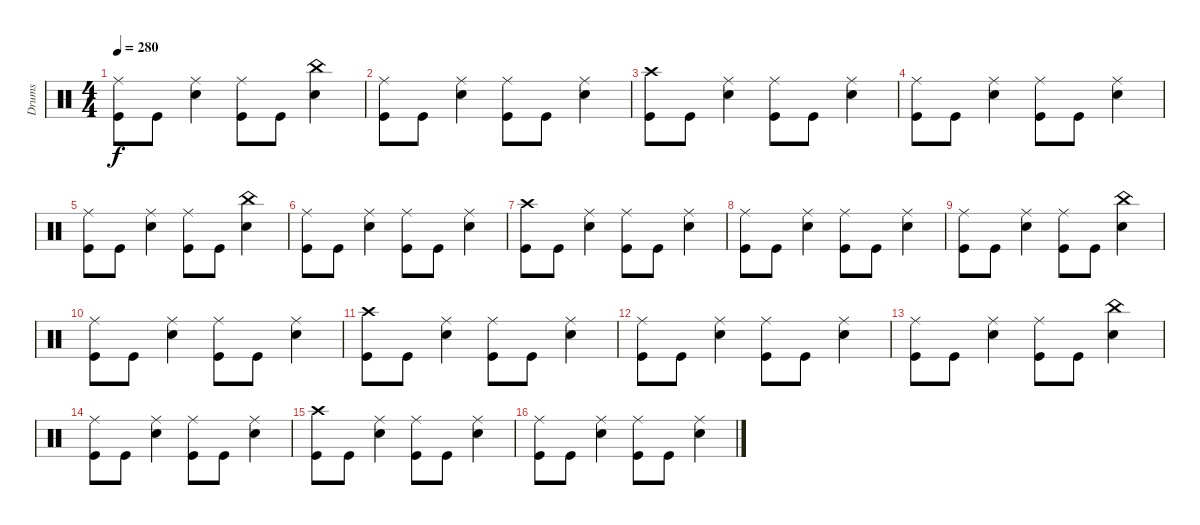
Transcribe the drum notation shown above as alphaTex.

\track ("Drums" "Drums") {instrument percussion}
\staff {score}
\articulation defaults
\ts (4 4)
\tempo 280
\clef neutral
\ks c
("Ride (middle)" "Kick (hit)").8{dy f} "Kick (hit)".8 ("Ride (middle)" "Electric Snare (hit)").4 ("Ride (middle)" "Kick (hit)").8 "Kick (hit)".8 ("China (hit)" "Electric Snare (hit)").4 |
("Ride (middle)" "Kick (hit)").8 "Kick (hit)".8 ("Ride (middle)" "Electric Snare (hit)").4 ("Ride (middle)" "Kick (hit)").8 "Kick (hit)".8 ("Ride (middle)" "Electric Snare (hit)").4 |
("Crash high (hit)" "Kick (hit)").8 "Kick (hit)".8 ("Ride (middle)" "Electric Snare (hit)").4 ("Ride (middle)" "Kick (hit)").8 "Kick (hit)".8 ("Ride (middle)" "Electric Snare (hit)").4 |
("Ride (middle)" "Kick (hit)").8 "Kick (hit)".8 ("Ride (middle)" "Electric Snare (hit)").4 ("Ride (middle)" "Kick (hit)").8 "Kick (hit)".8 ("Ride (middle)" "Electric Snare (hit)").4 |
("Ride (middle)" "Kick (hit)").8 "Kick (hit)".8 ("Ride (middle)" "Electric Snare (hit)").4 ("Ride (middle)" "Kick (hit)").8 "Kick (hit)".8 ("China (hit)" "Electric Snare (hit)").4 |
("Ride (middle)" "Kick (hit)").8 "Kick (hit)".8 ("Ride (middle)" "Electric Snare (hit)").4 ("Ride (middle)" "Kick (hit)").8 "Kick (hit)".8 ("Ride (middle)" "Electric Snare (hit)").4 |
("Crash high (hit)" "Kick (hit)").8 "Kick (hit)".8 ("Ride (middle)" "Electric Snare (hit)").4 ("Ride (middle)" "Kick (hit)").8 "Kick (hit)".8 ("Ride (middle)" "Electric Snare (hit)").4 |
("Ride (middle)" "Kick (hit)").8 "Kick (hit)".8 ("Ride (middle)" "Electric Snare (hit)").4 ("Ride (middle)" "Kick (hit)").8 "Kick (hit)".8 ("Ride (middle)" "Electric Snare (hit)").4 |
("Ride (middle)" "Kick (hit)").8 "Kick (hit)".8 ("Ride (middle)" "Electric Snare (hit)").4 ("Ride (middle)" "Kick (hit)").8 "Kick (hit)".8 ("China (hit)" "Electric Snare (hit)").4 |
("Ride (middle)" "Kick (hit)").8 "Kick (hit)".8 ("Ride (middle)" "Electric Snare (hit)").4 ("Ride (middle)" "Kick (hit)").8 "Kick (hit)".8 ("Ride (middle)" "Electric Snare (hit)").4 |
("Crash high (hit)" "Kick (hit)").8 "Kick (hit)".8 ("Ride (middle)" "Electric Snare (hit)").4 ("Ride (middle)" "Kick (hit)").8 "Kick (hit)".8 ("Ride (middle)" "Electric Snare (hit)").4 |
("Ride (middle)" "Kick (hit)").8 "Kick (hit)".8 ("Ride (middle)" "Electric Snare (hit)").4 ("Ride (middle)" "Kick (hit)").8 "Kick (hit)".8 ("Ride (middle)" "Electric Snare (hit)").4 |
("Ride (middle)" "Kick (hit)").8 "Kick (hit)".8 ("Ride (middle)" "Electric Snare (hit)").4 ("Ride (middle)" "Kick (hit)").8 "Kick (hit)".8 ("China (hit)" "Electric Snare (hit)").4 |
("Ride (middle)" "Kick (hit)").8 "Kick (hit)".8 ("Ride (middle)" "Electric Snare (hit)").4 ("Ride (middle)" "Kick (hit)").8 "Kick (hit)".8 ("Ride (middle)" "Electric Snare (hit)").4 |
("Crash high (hit)" "Kick (hit)").8 "Kick (hit)".8 ("Ride (middle)" "Electric Snare (hit)").4 ("Ride (middle)" "Kick (hit)").8 "Kick (hit)".8 ("Ride (middle)" "Electric Snare (hit)").4 |
("Ride (middle)" "Kick (hit)").8 "Kick (hit)".8 ("Ride (middle)" "Electric Snare (hit)").4 ("Ride (middle)" "Kick (hit)").8 "Kick (hit)".8 ("Ride (middle)" "Electric Snare (hit)").4
